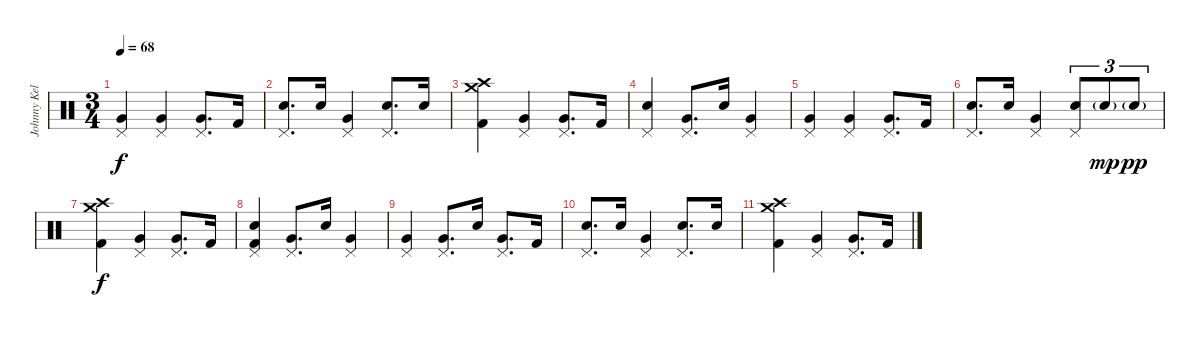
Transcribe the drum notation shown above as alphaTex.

\track ("Johnny Kelly" "Johnny Kel") {instrument percussion}
\staff {score}
\articulation defaults
\ts (3 4)
\tempo 68
\clef neutral
\ks c
("Pedal Hi-Hat (hit)" "Very Low Tom (hit)").4{dy f} ("Pedal Hi-Hat (hit)" "Very Low Tom (hit)").4 ("Pedal Hi-Hat (hit)" "Very Low Tom (hit)").8{d} "Kick (hit) 2".16 |
("Pedal Hi-Hat (hit)" "Electric Snare (hit)").8{d} "Electric Snare (hit)".16 ("Pedal Hi-Hat (hit)" "Very Low Tom (hit)").4 ("Pedal Hi-Hat (hit)" "Electric Snare (hit)").8{d} "Electric Snare (hit)".16 |
("Crash high (hit)" "Crash medium (hit)" "Kick (hit) 2").4 ("Pedal Hi-Hat (hit)" "Very Low Tom (hit)").4 ("Pedal Hi-Hat (hit)" "Very Low Tom (hit)").8{d} "Kick (hit) 2".16 |
("Pedal Hi-Hat (hit)" "Electric Snare (hit)").4 ("Pedal Hi-Hat (hit)" "Very Low Tom (hit)").8{d} "Electric Snare (hit)".16 ("Pedal Hi-Hat (hit)" "Very Low Tom (hit)").4 |
("Pedal Hi-Hat (hit)" "Very Low Tom (hit)").4 ("Pedal Hi-Hat (hit)" "Very Low Tom (hit)").4 ("Pedal Hi-Hat (hit)" "Very Low Tom (hit)").8{d} "Kick (hit) 2".16 |
("Pedal Hi-Hat (hit)" "Electric Snare (hit)").8{d} "Electric Snare (hit)".16 ("Pedal Hi-Hat (hit)" "Very Low Tom (hit)").4 ("Pedal Hi-Hat (hit)" "Electric Snare (hit)").8{tu (3 2)} "Electric Snare (hit)"{g}.8{tu (3 2) dy mp} "Electric Snare (hit)"{g}.8{tu (3 2) dy pp} |
("Crash high (hit)" "Crash medium (hit)" "Kick (hit) 2").4{dy f} ("Pedal Hi-Hat (hit)" "Very Low Tom (hit)").4 ("Pedal Hi-Hat (hit)" "Very Low Tom (hit)").8{d} "Kick (hit) 2".16 |
("Pedal Hi-Hat (hit)" "Electric Snare (hit)" "Kick (hit) 2").4 ("Pedal Hi-Hat (hit)" "Very Low Tom (hit)").8{d} "Electric Snare (hit)".16 ("Pedal Hi-Hat (hit)" "Very Low Tom (hit)").4 |
("Pedal Hi-Hat (hit)" "Very Low Tom (hit)").4{volume 0} ("Pedal Hi-Hat (hit)" "Very Low Tom (hit)").8{d} "Electric Snare (hit)".16 ("Pedal Hi-Hat (hit)" "Very Low Tom (hit)").8{d} "Kick (hit) 2".16 |
("Pedal Hi-Hat (hit)" "Electric Snare (hit)").8{d} "Electric Snare (hit)".16 ("Pedal Hi-Hat (hit)" "Very Low Tom (hit)").4 ("Pedal Hi-Hat (hit)" "Electric Snare (hit)").8{d} "Electric Snare (hit)".16 |
("Crash high (hit)" "Crash medium (hit)" "Kick (hit) 2").4 ("Pedal Hi-Hat (hit)" "Very Low Tom (hit)").4 ("Pedal Hi-Hat (hit)" "Very Low Tom (hit)").8{d} "Kick (hit) 2".16
